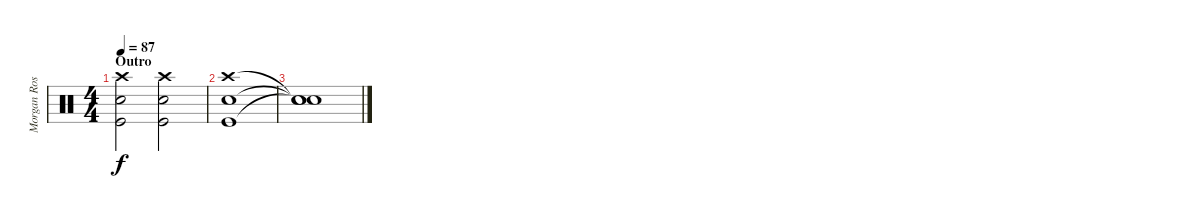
\track ("Morgan Rose" "Morgan Ros") {instrument percussion}
\staff {score}
\articulation defaults
\ts (4 4)
\section ("" "Outro")
\tempo 87
\clef neutral
\ks c
("Crash high (hit)" "Snare (hit) 2" "Kick (hit)").2{dy f} ("Crash high (hit)" "Snare (hit) 2" "Kick (hit)").2 |
("Crash high (hit)" "Snare (hit) 2" "Kick (hit)").1 |
("Snare (hit)"{t} "Snare (hit)"{t} "Snare (hit)"{t}).1
